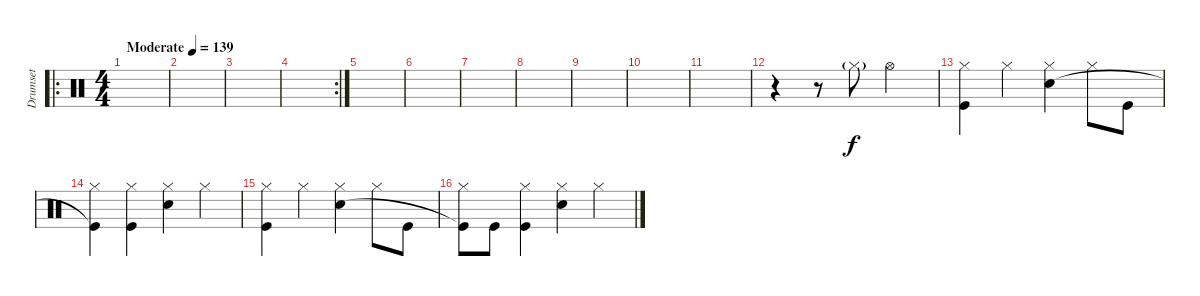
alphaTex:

\track ("Drumset" "Drumset") {instrument percussion}
\staff {score}
\articulation defaults
\ro
\ts (4 4)
\tempo (139 "Moderate")
\clef neutral
\ks c
|
|
|
\rc 2
|
|
|
|
|
|
|
|
r.4 r.8 "Hi-Hat (closed)"{g}.8 "Hi-Hat (open)".2{dy f} |
("Hi-Hat (closed)" "Kick (hit)").4 "Hi-Hat (closed)".4 ("Hi-Hat (closed)" "Snare (hit) 2").4 "Hi-Hat (closed)".8 "Kick (hit)".8 |
("Hi-Hat (closed)" "Kick (hit)"{t}).4 ("Hi-Hat (closed)" "Kick (hit)").4 ("Hi-Hat (closed)" "Snare (hit) 2").4 "Hi-Hat (closed)".4 |
("Hi-Hat (closed)" "Kick (hit)").4 "Hi-Hat (closed)".4 ("Hi-Hat (closed)" "Snare (hit) 2").4 "Hi-Hat (closed)".8 "Kick (hit)".8 |
("Hi-Hat (closed)" "Kick (hit)"{t}).8 "Kick (hit)".8 ("Hi-Hat (closed)" "Kick (hit)").4 ("Hi-Hat (closed)" "Snare (hit) 2").4 "Hi-Hat (closed)".4
